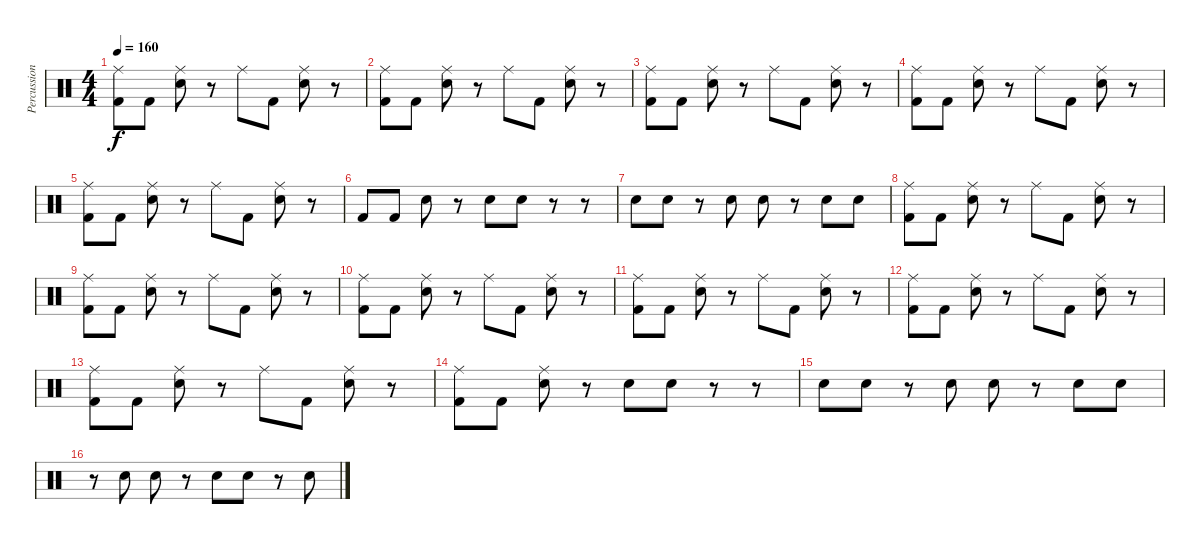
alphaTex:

\track ("Percussion" "Percussion") {instrument percussion}
\staff {score}
\articulation defaults
\ts (4 4)
\tempo 160
\clef neutral
\ks c
("Ride (middle)" "Kick (hit) 2").8{dy f} "Kick (hit) 2".8 ("Ride (middle)" "Electric Snare (hit)").8 r.8 "Ride (middle)".8 "Kick (hit) 2".8 ("Ride (middle)" "Electric Snare (hit)").8 r.8 |
("Ride (middle)" "Kick (hit) 2").8 "Kick (hit) 2".8 ("Ride (middle)" "Electric Snare (hit)").8 r.8 "Ride (middle)".8 "Kick (hit) 2".8 ("Ride (middle)" "Electric Snare (hit)").8 r.8 |
("Ride (middle)" "Kick (hit) 2").8 "Kick (hit) 2".8 ("Ride (middle)" "Electric Snare (hit)").8 r.8 "Ride (middle)".8 "Kick (hit) 2".8 ("Ride (middle)" "Electric Snare (hit)").8 r.8 |
("Ride (middle)" "Kick (hit) 2").8 "Kick (hit) 2".8 ("Ride (middle)" "Electric Snare (hit)").8 r.8 "Ride (middle)".8 "Kick (hit) 2".8 ("Ride (middle)" "Electric Snare (hit)").8 r.8 |
("Ride (middle)" "Kick (hit) 2").8 "Kick (hit) 2".8 ("Ride (middle)" "Electric Snare (hit)").8 r.8 "Ride (middle)".8 "Kick (hit) 2".8 ("Ride (middle)" "Electric Snare (hit)").8 r.8 |
"Kick (hit) 2".8 "Kick (hit) 2".8 "Electric Snare (hit)".8 r.8 "Electric Snare (hit)".8 "Electric Snare (hit)".8 r.8 r.8 |
"Electric Snare (hit)".8 "Electric Snare (hit)".8 r.8 "Electric Snare (hit)".8 "Electric Snare (hit)".8 r.8 "Electric Snare (hit)".8 "Electric Snare (hit)".8 |
("Ride (middle)" "Kick (hit) 2").8 "Kick (hit) 2".8 ("Ride (middle)" "Electric Snare (hit)").8 r.8 "Ride (middle)".8 "Kick (hit) 2".8 ("Ride (middle)" "Electric Snare (hit)").8 r.8 |
("Ride (middle)" "Kick (hit) 2").8 "Kick (hit) 2".8 ("Ride (middle)" "Electric Snare (hit)").8 r.8 "Ride (middle)".8 "Kick (hit) 2".8 ("Ride (middle)" "Electric Snare (hit)").8 r.8 |
("Ride (middle)" "Kick (hit) 2").8 "Kick (hit) 2".8 ("Ride (middle)" "Electric Snare (hit)").8 r.8 "Ride (middle)".8 "Kick (hit) 2".8 ("Ride (middle)" "Electric Snare (hit)").8 r.8 |
("Ride (middle)" "Kick (hit) 2").8 "Kick (hit) 2".8 ("Ride (middle)" "Electric Snare (hit)").8 r.8 "Ride (middle)".8 "Kick (hit) 2".8 ("Ride (middle)" "Electric Snare (hit)").8 r.8 |
("Ride (middle)" "Kick (hit) 2").8 "Kick (hit) 2".8 ("Ride (middle)" "Electric Snare (hit)").8 r.8 "Ride (middle)".8 "Kick (hit) 2".8 ("Ride (middle)" "Electric Snare (hit)").8 r.8 |
("Ride (middle)" "Kick (hit) 2").8 "Kick (hit) 2".8 ("Ride (middle)" "Electric Snare (hit)").8 r.8 "Ride (middle)".8 "Kick (hit) 2".8 ("Ride (middle)" "Electric Snare (hit)").8 r.8 |
("Ride (middle)" "Kick (hit) 2").8 "Kick (hit) 2".8 ("Ride (middle)" "Electric Snare (hit)").8 r.8 "Electric Snare (hit)".8 "Electric Snare (hit)".8 r.8 r.8 |
"Electric Snare (hit)".8 "Electric Snare (hit)".8 r.8 "Electric Snare (hit)".8 "Electric Snare (hit)".8 r.8 "Electric Snare (hit)".8 "Electric Snare (hit)".8 |
r.8 "Electric Snare (hit)".8 "Electric Snare (hit)".8 r.8 "Electric Snare (hit)".8 "Electric Snare (hit)".8 r.8 "Electric Snare (hit)".8
